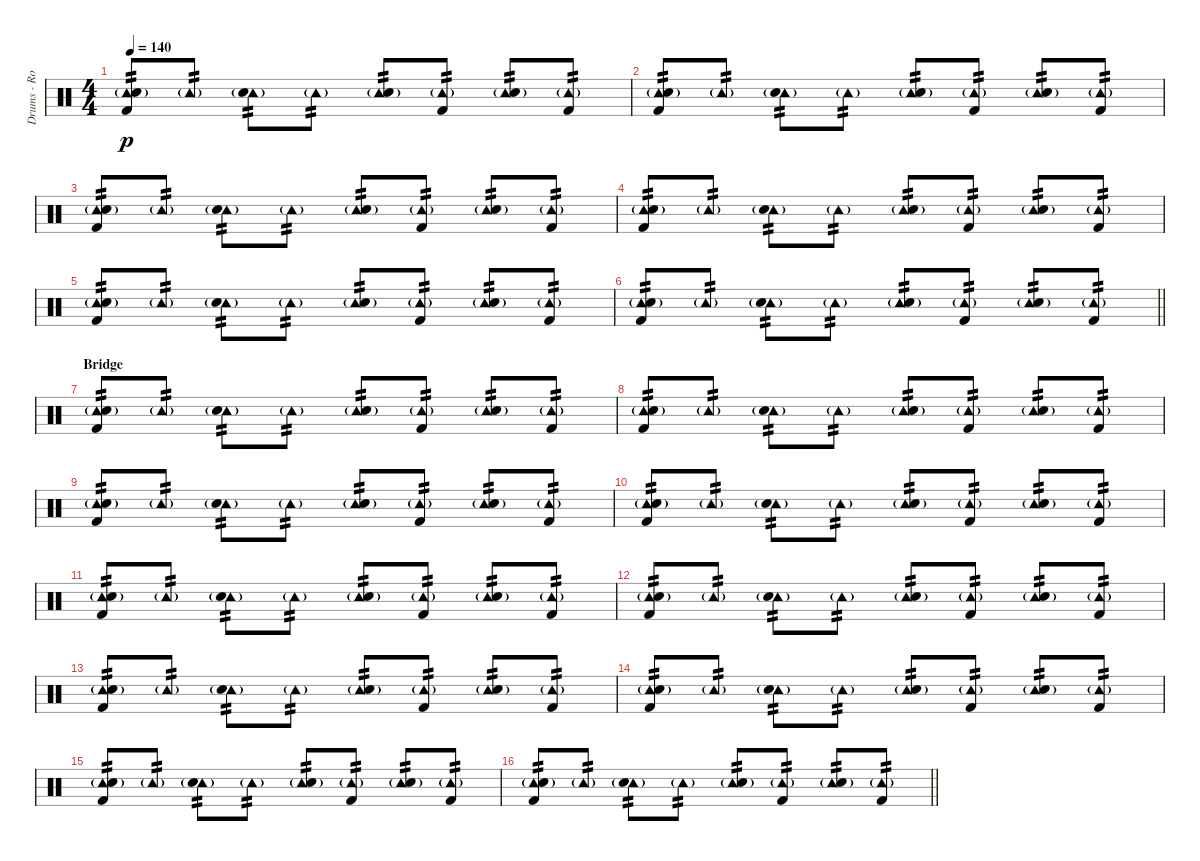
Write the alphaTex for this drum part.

\track ("Drums - Rob Bourdon" "Drums - Ro") {instrument percussion}
\staff {score}
\articulation defaults
\ts (4 4)
\tempo 140
\clef neutral
\ks c
("Tambourine (hit)"{g} "Electric Snare (hit)" "Kick (hit) 2").8{tp 2 dy p} "Tambourine (hit)"{g}.8{tp 2} ("Tambourine (hit)"{g} "Electric Snare (hit)").8{tp 2} "Tambourine (hit)"{g}.8{tp 2} ("Tambourine (hit)"{g} "Electric Snare (hit)").8{tp 2} ("Tambourine (hit)"{g} "Kick (hit) 2").8{tp 2} ("Tambourine (hit)"{g} "Electric Snare (hit)").8{tp 2} ("Tambourine (hit)"{g} "Kick (hit) 2").8{tp 2} |
("Tambourine (hit)"{g} "Electric Snare (hit)" "Kick (hit) 2").8{tp 2} "Tambourine (hit)"{g}.8{tp 2} ("Tambourine (hit)"{g} "Electric Snare (hit)").8{tp 2} "Tambourine (hit)"{g}.8{tp 2} ("Tambourine (hit)"{g} "Electric Snare (hit)").8{tp 2} ("Tambourine (hit)"{g} "Kick (hit) 2").8{tp 2} ("Tambourine (hit)"{g} "Electric Snare (hit)").8{tp 2} ("Tambourine (hit)"{g} "Kick (hit) 2").8{tp 2} |
("Tambourine (hit)"{g} "Electric Snare (hit)" "Kick (hit) 2").8{tp 2} "Tambourine (hit)"{g}.8{tp 2} ("Tambourine (hit)"{g} "Electric Snare (hit)").8{tp 2} "Tambourine (hit)"{g}.8{tp 2} ("Tambourine (hit)"{g} "Electric Snare (hit)").8{tp 2} ("Tambourine (hit)"{g} "Kick (hit) 2").8{tp 2} ("Tambourine (hit)"{g} "Electric Snare (hit)").8{tp 2} ("Tambourine (hit)"{g} "Kick (hit) 2").8{tp 2} |
("Tambourine (hit)"{g} "Electric Snare (hit)" "Kick (hit) 2").8{tp 2} "Tambourine (hit)"{g}.8{tp 2} ("Tambourine (hit)"{g} "Electric Snare (hit)").8{tp 2} "Tambourine (hit)"{g}.8{tp 2} ("Tambourine (hit)"{g} "Electric Snare (hit)").8{tp 2} ("Tambourine (hit)"{g} "Kick (hit) 2").8{tp 2} ("Tambourine (hit)"{g} "Electric Snare (hit)").8{tp 2} ("Tambourine (hit)"{g} "Kick (hit) 2").8{tp 2} |
("Tambourine (hit)"{g} "Electric Snare (hit)" "Kick (hit) 2").8{tp 2} "Tambourine (hit)"{g}.8{tp 2} ("Tambourine (hit)"{g} "Electric Snare (hit)").8{tp 2} "Tambourine (hit)"{g}.8{tp 2} ("Tambourine (hit)"{g} "Electric Snare (hit)").8{tp 2} ("Tambourine (hit)"{g} "Kick (hit) 2").8{tp 2} ("Tambourine (hit)"{g} "Electric Snare (hit)").8{tp 2} ("Tambourine (hit)"{g} "Kick (hit) 2").8{tp 2} |
\barLineRight lightlight
("Tambourine (hit)"{g} "Electric Snare (hit)" "Kick (hit) 2").8{tp 2} "Tambourine (hit)"{g}.8{tp 2} ("Tambourine (hit)"{g} "Electric Snare (hit)").8{tp 2} "Tambourine (hit)"{g}.8{tp 2} ("Tambourine (hit)"{g} "Electric Snare (hit)").8{tp 2} ("Tambourine (hit)"{g} "Kick (hit) 2").8{tp 2} ("Tambourine (hit)"{g} "Electric Snare (hit)").8{tp 2} ("Tambourine (hit)"{g} "Kick (hit) 2").8{tp 2} |
\section ("" "Bridge")
("Tambourine (hit)"{g} "Electric Snare (hit)" "Kick (hit) 2").8{tp 2} "Tambourine (hit)"{g}.8{tp 2} ("Tambourine (hit)"{g} "Electric Snare (hit)").8{tp 2} "Tambourine (hit)"{g}.8{tp 2} ("Tambourine (hit)"{g} "Electric Snare (hit)").8{tp 2} ("Tambourine (hit)"{g} "Kick (hit) 2").8{tp 2} ("Tambourine (hit)"{g} "Electric Snare (hit)").8{tp 2} ("Tambourine (hit)"{g} "Kick (hit) 2").8{tp 2} |
("Tambourine (hit)"{g} "Electric Snare (hit)" "Kick (hit) 2").8{tp 2} "Tambourine (hit)"{g}.8{tp 2} ("Tambourine (hit)"{g} "Electric Snare (hit)").8{tp 2} "Tambourine (hit)"{g}.8{tp 2} ("Tambourine (hit)"{g} "Electric Snare (hit)").8{tp 2} ("Tambourine (hit)"{g} "Kick (hit) 2").8{tp 2} ("Tambourine (hit)"{g} "Electric Snare (hit)").8{tp 2} ("Tambourine (hit)"{g} "Kick (hit) 2").8{tp 2} |
("Tambourine (hit)"{g} "Electric Snare (hit)" "Kick (hit) 2").8{tp 2} "Tambourine (hit)"{g}.8{tp 2} ("Tambourine (hit)"{g} "Electric Snare (hit)").8{tp 2} "Tambourine (hit)"{g}.8{tp 2} ("Tambourine (hit)"{g} "Electric Snare (hit)").8{tp 2} ("Tambourine (hit)"{g} "Kick (hit) 2").8{tp 2} ("Tambourine (hit)"{g} "Electric Snare (hit)").8{tp 2} ("Tambourine (hit)"{g} "Kick (hit) 2").8{tp 2} |
("Tambourine (hit)"{g} "Electric Snare (hit)" "Kick (hit) 2").8{tp 2} "Tambourine (hit)"{g}.8{tp 2} ("Tambourine (hit)"{g} "Electric Snare (hit)").8{tp 2} "Tambourine (hit)"{g}.8{tp 2} ("Tambourine (hit)"{g} "Electric Snare (hit)").8{tp 2} ("Tambourine (hit)"{g} "Kick (hit) 2").8{tp 2} ("Tambourine (hit)"{g} "Electric Snare (hit)").8{tp 2} ("Tambourine (hit)"{g} "Kick (hit) 2").8{tp 2} |
("Tambourine (hit)"{g} "Electric Snare (hit)" "Kick (hit) 2").8{tp 2} "Tambourine (hit)"{g}.8{tp 2} ("Tambourine (hit)"{g} "Electric Snare (hit)").8{tp 2} "Tambourine (hit)"{g}.8{tp 2} ("Tambourine (hit)"{g} "Electric Snare (hit)").8{tp 2} ("Tambourine (hit)"{g} "Kick (hit) 2").8{tp 2} ("Tambourine (hit)"{g} "Electric Snare (hit)").8{tp 2} ("Tambourine (hit)"{g} "Kick (hit) 2").8{tp 2} |
("Tambourine (hit)"{g} "Electric Snare (hit)" "Kick (hit) 2").8{tp 2} "Tambourine (hit)"{g}.8{tp 2} ("Tambourine (hit)"{g} "Electric Snare (hit)").8{tp 2} "Tambourine (hit)"{g}.8{tp 2} ("Tambourine (hit)"{g} "Electric Snare (hit)").8{tp 2} ("Tambourine (hit)"{g} "Kick (hit) 2").8{tp 2} ("Tambourine (hit)"{g} "Electric Snare (hit)").8{tp 2} ("Tambourine (hit)"{g} "Kick (hit) 2").8{tp 2} |
("Tambourine (hit)"{g} "Electric Snare (hit)" "Kick (hit) 2").8{tp 2} "Tambourine (hit)"{g}.8{tp 2} ("Tambourine (hit)"{g} "Electric Snare (hit)").8{tp 2} "Tambourine (hit)"{g}.8{tp 2} ("Tambourine (hit)"{g} "Electric Snare (hit)").8{tp 2} ("Tambourine (hit)"{g} "Kick (hit) 2").8{tp 2} ("Tambourine (hit)"{g} "Electric Snare (hit)").8{tp 2} ("Tambourine (hit)"{g} "Kick (hit) 2").8{tp 2} |
("Tambourine (hit)"{g} "Electric Snare (hit)" "Kick (hit) 2").8{tp 2} "Tambourine (hit)"{g}.8{tp 2} ("Tambourine (hit)"{g} "Electric Snare (hit)").8{tp 2} "Tambourine (hit)"{g}.8{tp 2} ("Tambourine (hit)"{g} "Electric Snare (hit)").8{tp 2} ("Tambourine (hit)"{g} "Kick (hit) 2").8{tp 2} ("Tambourine (hit)"{g} "Electric Snare (hit)").8{tp 2} ("Tambourine (hit)"{g} "Kick (hit) 2").8{tp 2} |
("Tambourine (hit)"{g} "Electric Snare (hit)" "Kick (hit) 2").8{tp 2} "Tambourine (hit)"{g}.8{tp 2} ("Tambourine (hit)"{g} "Electric Snare (hit)").8{tp 2} "Tambourine (hit)"{g}.8{tp 2} ("Tambourine (hit)"{g} "Electric Snare (hit)").8{tp 2} ("Tambourine (hit)"{g} "Kick (hit) 2").8{tp 2} ("Tambourine (hit)"{g} "Electric Snare (hit)").8{tp 2} ("Tambourine (hit)"{g} "Kick (hit) 2").8{tp 2} |
\barLineRight lightlight
("Tambourine (hit)"{g} "Electric Snare (hit)" "Kick (hit) 2").8{tp 2} "Tambourine (hit)"{g}.8{tp 2} ("Tambourine (hit)"{g} "Electric Snare (hit)").8{tp 2} "Tambourine (hit)"{g}.8{tp 2} ("Tambourine (hit)"{g} "Electric Snare (hit)").8{tp 2} ("Tambourine (hit)"{g} "Kick (hit) 2").8{tp 2} ("Tambourine (hit)"{g} "Electric Snare (hit)").8{tp 2} ("Tambourine (hit)"{g} "Kick (hit) 2").8{tp 2}
